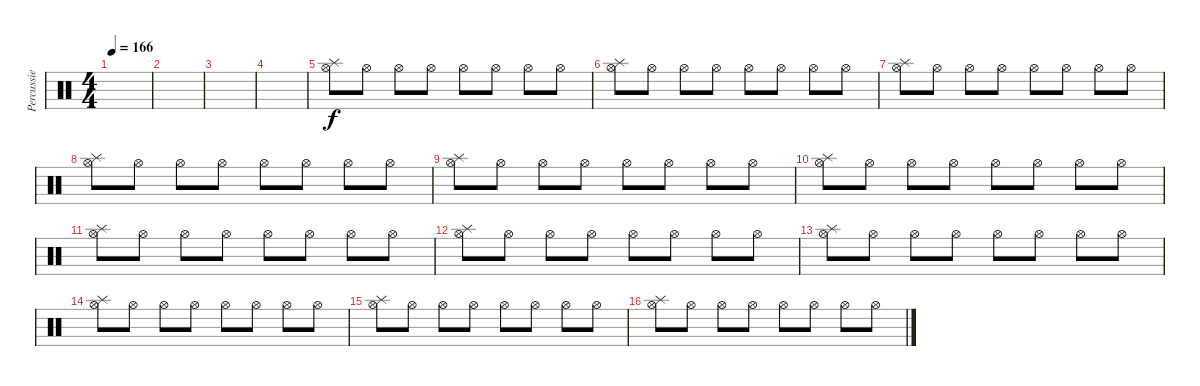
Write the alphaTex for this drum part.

\track ("Percussie" "Percussie") {instrument percussion}
\staff {score}
\articulation defaults
\ts (4 4)
\tempo 166
\clef neutral
\ks c
|
|
|
|
("Hi-Hat (open)" "Splash (hit)").8 "Hi-Hat (open)".8 "Hi-Hat (open)".8 "Hi-Hat (open)".8 "Hi-Hat (open)".8 "Hi-Hat (open)".8 "Hi-Hat (open)".8 "Hi-Hat (open)".8 |
("Hi-Hat (open)" "Splash (hit)").8 "Hi-Hat (open)".8 "Hi-Hat (open)".8 "Hi-Hat (open)".8 "Hi-Hat (open)".8 "Hi-Hat (open)".8 "Hi-Hat (open)".8 "Hi-Hat (open)".8 |
("Hi-Hat (open)" "Splash (hit)").8 "Hi-Hat (open)".8 "Hi-Hat (open)".8 "Hi-Hat (open)".8 "Hi-Hat (open)".8 "Hi-Hat (open)".8 "Hi-Hat (open)".8 "Hi-Hat (open)".8 |
("Hi-Hat (open)" "Splash (hit)").8 "Hi-Hat (open)".8 "Hi-Hat (open)".8 "Hi-Hat (open)".8 "Hi-Hat (open)".8 "Hi-Hat (open)".8 "Hi-Hat (open)".8 "Hi-Hat (open)".8 |
("Hi-Hat (open)" "Splash (hit)").8 "Hi-Hat (open)".8 "Hi-Hat (open)".8 "Hi-Hat (open)".8 "Hi-Hat (open)".8 "Hi-Hat (open)".8 "Hi-Hat (open)".8 "Hi-Hat (open)".8 |
("Hi-Hat (open)" "Splash (hit)").8 "Hi-Hat (open)".8 "Hi-Hat (open)".8 "Hi-Hat (open)".8 "Hi-Hat (open)".8 "Hi-Hat (open)".8 "Hi-Hat (open)".8 "Hi-Hat (open)".8 |
("Hi-Hat (open)" "Splash (hit)").8 "Hi-Hat (open)".8 "Hi-Hat (open)".8 "Hi-Hat (open)".8 "Hi-Hat (open)".8 "Hi-Hat (open)".8 "Hi-Hat (open)".8 "Hi-Hat (open)".8 |
("Hi-Hat (open)" "Splash (hit)").8 "Hi-Hat (open)".8 "Hi-Hat (open)".8 "Hi-Hat (open)".8 "Hi-Hat (open)".8 "Hi-Hat (open)".8 "Hi-Hat (open)".8 "Hi-Hat (open)".8 |
("Hi-Hat (open)" "Splash (hit)").8 "Hi-Hat (open)".8 "Hi-Hat (open)".8 "Hi-Hat (open)".8 "Hi-Hat (open)".8 "Hi-Hat (open)".8 "Hi-Hat (open)".8 "Hi-Hat (open)".8 |
("Hi-Hat (open)" "Splash (hit)").8 "Hi-Hat (open)".8 "Hi-Hat (open)".8 "Hi-Hat (open)".8 "Hi-Hat (open)".8 "Hi-Hat (open)".8 "Hi-Hat (open)".8 "Hi-Hat (open)".8 |
("Hi-Hat (open)" "Splash (hit)").8 "Hi-Hat (open)".8 "Hi-Hat (open)".8 "Hi-Hat (open)".8 "Hi-Hat (open)".8 "Hi-Hat (open)".8 "Hi-Hat (open)".8 "Hi-Hat (open)".8 |
("Hi-Hat (open)" "Splash (hit)").8 "Hi-Hat (open)".8 "Hi-Hat (open)".8 "Hi-Hat (open)".8 "Hi-Hat (open)".8 "Hi-Hat (open)".8 "Hi-Hat (open)".8 "Hi-Hat (open)".8
